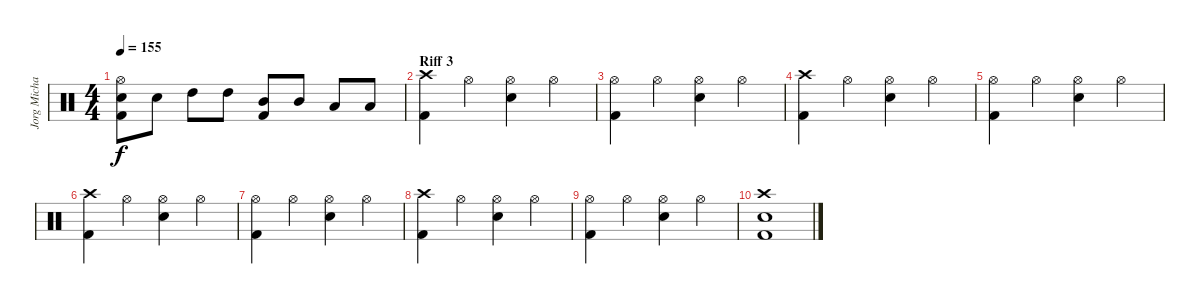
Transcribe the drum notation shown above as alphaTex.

\track ("Jorg Michael - Batteria" "Jorg Micha") {instrument percussion}
\staff {score}
\articulation defaults
\ts (4 4)
\tempo 155
\clef neutral
\ks c
("Kick (hit) 2" "Snare (hit) 2" "Hi-Hat (open)").8{dy f} "Snare (hit) 2".8 "High Tom (hit)".8 "High Tom (hit)".8 ("Kick (hit) 2" "Mid Tom (hit)").8 "Mid Tom (hit)".8 "Low Tom (hit)".8 "Low Tom (hit)".8 |
\section ("" "Riff 3")
("Kick (hit) 2" "Crash high (hit)").4 "Hi-Hat (open)".4 ("Snare (hit) 2" "Hi-Hat (open)").4 "Hi-Hat (open)".4 |
("Kick (hit) 2" "Hi-Hat (open)").4 "Hi-Hat (open)".4 ("Snare (hit) 2" "Hi-Hat (open)").4 "Hi-Hat (open)".4 |
("Kick (hit) 2" "Crash high (hit)").4 "Hi-Hat (open)".4 ("Snare (hit) 2" "Hi-Hat (open)").4 "Hi-Hat (open)".4 |
("Kick (hit) 2" "Hi-Hat (open)").4 "Hi-Hat (open)".4 ("Snare (hit) 2" "Hi-Hat (open)").4 "Hi-Hat (open)".4 |
("Kick (hit) 2" "Crash high (hit)").4 "Hi-Hat (open)".4 ("Snare (hit) 2" "Hi-Hat (open)").4 "Hi-Hat (open)".4 |
("Kick (hit) 2" "Hi-Hat (open)").4 "Hi-Hat (open)".4 ("Snare (hit) 2" "Hi-Hat (open)").4 "Hi-Hat (open)".4 |
("Kick (hit) 2" "Crash high (hit)").4 "Hi-Hat (open)".4 ("Snare (hit) 2" "Hi-Hat (open)").4 "Hi-Hat (open)".4 |
("Kick (hit) 2" "Hi-Hat (open)").4 "Hi-Hat (open)".4 ("Snare (hit) 2" "Hi-Hat (open)").4 "Hi-Hat (open)".4 |
("Kick (hit) 2" "Snare (hit) 2" "Crash high (hit)").1
